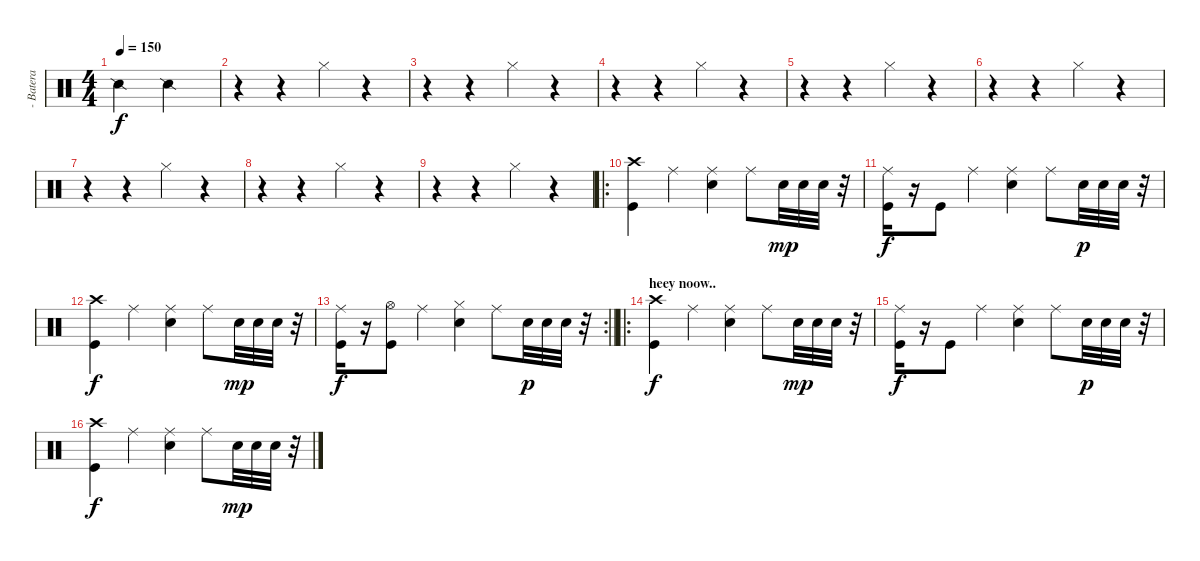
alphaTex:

\track ("- Batera" "- Batera") {instrument percussion}
\staff {score}
\articulation defaults
\ts (4 4)
\tempo 150
\clef neutral
\ks c "Snare (side stick) 2".2{dy f} "Snare (side stick) 2".2
|
r.4 r.4 "Hi-Hat (closed)".4 r.4 |
r.4 r.4 "Hi-Hat (closed)".4 r.4 |
r.4 r.4 "Hi-Hat (closed)".4 r.4 |
r.4 r.4 "Hi-Hat (closed)".4 r.4 |
r.4 r.4 "Hi-Hat (closed)".4 r.4 |
r.4 r.4 "Hi-Hat (closed)".4 r.4 |
r.4 r.4 "Hi-Hat (closed)".4 r.4 |
r.4 r.4 "Hi-Hat (closed)".4 r.4 |
\ro
("Crash high (hit)" "Kick (hit)").4 "Ride (middle)".4 ("Ride (middle)" "Snare (hit) 2").4 "Ride (middle)".8 "Snare (hit) 2".32{dy mp} "Snare (hit) 2".32 "Snare (hit) 2".32 r.32 |
("Ride (middle)" "Kick (hit)").16{dy f} r.16 "Kick (hit)".8 "Ride (middle)".4 ("Ride (middle)" "Snare (hit) 2").4 "Ride (middle)".8 "Snare (hit) 2".32{dy p} "Snare (hit) 2".32 "Snare (hit) 2".32 r.32 |
("Crash high (hit)" "Kick (hit)").4{dy f} "Ride (middle)".4 ("Ride (middle)" "Snare (hit) 2").4 "Ride (middle)".8 "Snare (hit) 2".32{dy mp} "Snare (hit) 2".32 "Snare (hit) 2".32 r.32 |
\rc 2
\barLineRight lightlight
("Ride (middle)" "Kick (hit)").16{dy f} r.16 ("Hi-Hat (open)" "Kick (hit)").8 "Ride (middle)".4 ("Hi-Hat (closed)" "Snare (hit) 2").4 "Ride (middle)".8 "Snare (hit) 2".32{dy p} "Snare (hit) 2".32 "Snare (hit) 2".32 r.32 |
\ro
\section ("" "heey noow..")
("Crash high (hit)" "Kick (hit)").4{dy f} "Ride (middle)".4 ("Ride (middle)" "Snare (hit) 2").4 "Ride (middle)".8 "Snare (hit) 2".32{dy mp} "Snare (hit) 2".32 "Snare (hit) 2".32 r.32 |
("Ride (middle)" "Kick (hit)").16{dy f} r.16 "Kick (hit)".8 "Ride (middle)".4 ("Ride (middle)" "Snare (hit) 2").4 "Ride (middle)".8 "Snare (hit) 2".32{dy p} "Snare (hit) 2".32 "Snare (hit) 2".32 r.32 |
("Crash high (hit)" "Kick (hit)").4{dy f} "Ride (middle)".4 ("Ride (middle)" "Snare (hit) 2").4 "Ride (middle)".8 "Snare (hit) 2".32{dy mp} "Snare (hit) 2".32 "Snare (hit) 2".32 r.32
